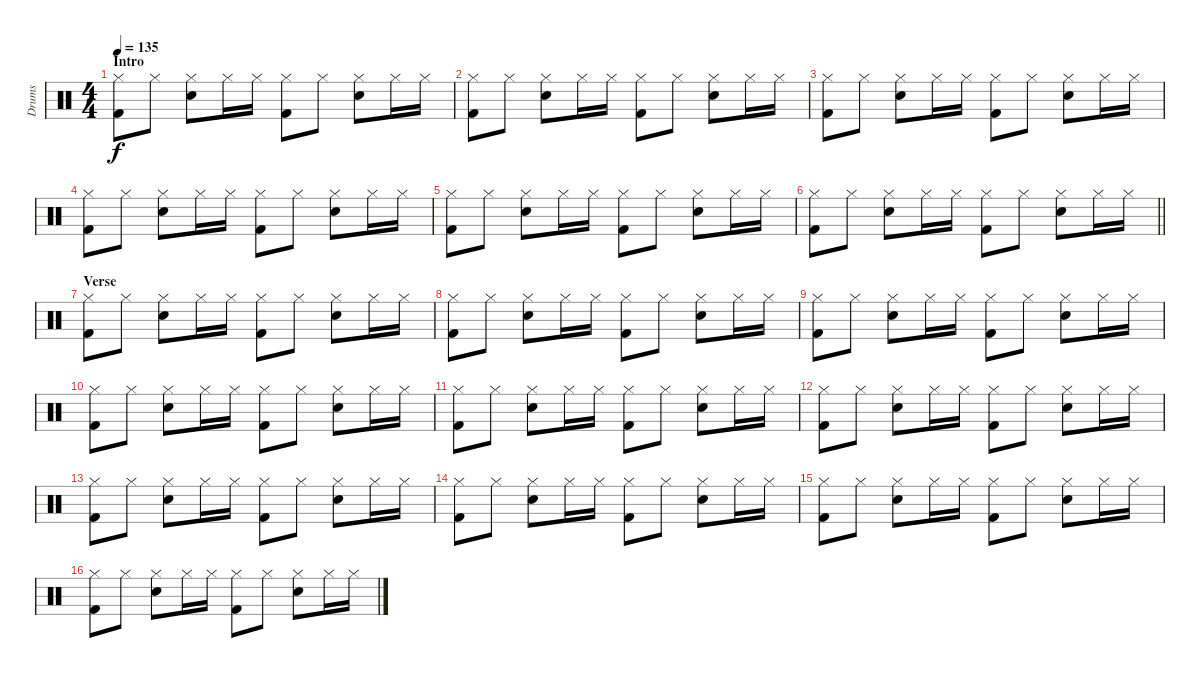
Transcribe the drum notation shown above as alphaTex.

\track ("Drums" "Drums") {instrument percussion}
\staff {score}
\articulation defaults
\ts (4 4)
\section ("" "Intro")
\tempo 135
\clef neutral
\ks c
("Hi-Hat (closed)" "Kick (hit) 2").8{dy f} "Hi-Hat (closed)".8 ("Hi-Hat (closed)" "Snare (hit) 2").8 "Hi-Hat (closed)".16 "Hi-Hat (closed)".16 ("Hi-Hat (closed)" "Kick (hit) 2").8 "Hi-Hat (closed)".8 ("Hi-Hat (closed)" "Snare (hit) 2").8 "Hi-Hat (closed)".16 "Hi-Hat (closed)".16 |
("Hi-Hat (closed)" "Kick (hit) 2").8 "Hi-Hat (closed)".8 ("Hi-Hat (closed)" "Snare (hit) 2").8 "Hi-Hat (closed)".16 "Hi-Hat (closed)".16 ("Hi-Hat (closed)" "Kick (hit) 2").8 "Hi-Hat (closed)".8 ("Hi-Hat (closed)" "Snare (hit) 2").8 "Hi-Hat (closed)".16 "Hi-Hat (closed)".16 |
("Hi-Hat (closed)" "Kick (hit) 2").8 "Hi-Hat (closed)".8 ("Hi-Hat (closed)" "Snare (hit) 2").8 "Hi-Hat (closed)".16 "Hi-Hat (closed)".16 ("Hi-Hat (closed)" "Kick (hit) 2").8 "Hi-Hat (closed)".8 ("Hi-Hat (closed)" "Snare (hit) 2").8 "Hi-Hat (closed)".16 "Hi-Hat (closed)".16 |
("Hi-Hat (closed)" "Kick (hit) 2").8 "Hi-Hat (closed)".8 ("Hi-Hat (closed)" "Snare (hit) 2").8 "Hi-Hat (closed)".16 "Hi-Hat (closed)".16 ("Hi-Hat (closed)" "Kick (hit) 2").8 "Hi-Hat (closed)".8 ("Hi-Hat (closed)" "Snare (hit) 2").8 "Hi-Hat (closed)".16 "Hi-Hat (closed)".16 |
("Hi-Hat (closed)" "Kick (hit) 2").8 "Hi-Hat (closed)".8 ("Hi-Hat (closed)" "Snare (hit) 2").8 "Hi-Hat (closed)".16 "Hi-Hat (closed)".16 ("Hi-Hat (closed)" "Kick (hit) 2").8 "Hi-Hat (closed)".8 ("Hi-Hat (closed)" "Snare (hit) 2").8 "Hi-Hat (closed)".16 "Hi-Hat (closed)".16 |
\barLineRight lightlight
("Hi-Hat (closed)" "Kick (hit) 2").8 "Hi-Hat (closed)".8 ("Hi-Hat (closed)" "Snare (hit) 2").8 "Hi-Hat (closed)".16 "Hi-Hat (closed)".16 ("Hi-Hat (closed)" "Kick (hit) 2").8 "Hi-Hat (closed)".8 ("Hi-Hat (closed)" "Snare (hit) 2").8 "Hi-Hat (closed)".16 "Hi-Hat (closed)".16 |
\section ("" "Verse")
("Hi-Hat (closed)" "Kick (hit) 2").8 "Hi-Hat (closed)".8 ("Hi-Hat (closed)" "Snare (hit) 2").8 "Hi-Hat (closed)".16 "Hi-Hat (closed)".16 ("Hi-Hat (closed)" "Kick (hit) 2").8 "Hi-Hat (closed)".8 ("Hi-Hat (closed)" "Snare (hit) 2").8 "Hi-Hat (closed)".16 "Hi-Hat (closed)".16 |
("Hi-Hat (closed)" "Kick (hit) 2").8 "Hi-Hat (closed)".8 ("Hi-Hat (closed)" "Snare (hit) 2").8 "Hi-Hat (closed)".16 "Hi-Hat (closed)".16 ("Hi-Hat (closed)" "Kick (hit) 2").8 "Hi-Hat (closed)".8 ("Hi-Hat (closed)" "Snare (hit) 2").8 "Hi-Hat (closed)".16 "Hi-Hat (closed)".16 |
("Hi-Hat (closed)" "Kick (hit) 2").8 "Hi-Hat (closed)".8 ("Hi-Hat (closed)" "Snare (hit) 2").8 "Hi-Hat (closed)".16 "Hi-Hat (closed)".16 ("Hi-Hat (closed)" "Kick (hit) 2").8 "Hi-Hat (closed)".8 ("Hi-Hat (closed)" "Snare (hit) 2").8 "Hi-Hat (closed)".16 "Hi-Hat (closed)".16 |
("Hi-Hat (closed)" "Kick (hit) 2").8 "Hi-Hat (closed)".8 ("Hi-Hat (closed)" "Snare (hit) 2").8 "Hi-Hat (closed)".16 "Hi-Hat (closed)".16 ("Hi-Hat (closed)" "Kick (hit) 2").8 "Hi-Hat (closed)".8 ("Hi-Hat (closed)" "Snare (hit) 2").8 "Hi-Hat (closed)".16 "Hi-Hat (closed)".16 |
("Hi-Hat (closed)" "Kick (hit) 2").8 "Hi-Hat (closed)".8 ("Hi-Hat (closed)" "Snare (hit) 2").8 "Hi-Hat (closed)".16 "Hi-Hat (closed)".16 ("Hi-Hat (closed)" "Kick (hit) 2").8 "Hi-Hat (closed)".8 ("Hi-Hat (closed)" "Snare (hit) 2").8 "Hi-Hat (closed)".16 "Hi-Hat (closed)".16 |
("Hi-Hat (closed)" "Kick (hit) 2").8 "Hi-Hat (closed)".8 ("Hi-Hat (closed)" "Snare (hit) 2").8 "Hi-Hat (closed)".16 "Hi-Hat (closed)".16 ("Hi-Hat (closed)" "Kick (hit) 2").8 "Hi-Hat (closed)".8 ("Hi-Hat (closed)" "Snare (hit) 2").8 "Hi-Hat (closed)".16 "Hi-Hat (closed)".16 |
("Hi-Hat (closed)" "Kick (hit) 2").8 "Hi-Hat (closed)".8 ("Hi-Hat (closed)" "Snare (hit) 2").8 "Hi-Hat (closed)".16 "Hi-Hat (closed)".16 ("Hi-Hat (closed)" "Kick (hit) 2").8 "Hi-Hat (closed)".8 ("Hi-Hat (closed)" "Snare (hit) 2").8 "Hi-Hat (closed)".16 "Hi-Hat (closed)".16 |
("Hi-Hat (closed)" "Kick (hit) 2").8 "Hi-Hat (closed)".8 ("Hi-Hat (closed)" "Snare (hit) 2").8 "Hi-Hat (closed)".16 "Hi-Hat (closed)".16 ("Hi-Hat (closed)" "Kick (hit) 2").8 "Hi-Hat (closed)".8 ("Hi-Hat (closed)" "Snare (hit) 2").8 "Hi-Hat (closed)".16 "Hi-Hat (closed)".16 |
("Hi-Hat (closed)" "Kick (hit) 2").8 "Hi-Hat (closed)".8 ("Hi-Hat (closed)" "Snare (hit) 2").8 "Hi-Hat (closed)".16 "Hi-Hat (closed)".16 ("Hi-Hat (closed)" "Kick (hit) 2").8 "Hi-Hat (closed)".8 ("Hi-Hat (closed)" "Snare (hit) 2").8 "Hi-Hat (closed)".16 "Hi-Hat (closed)".16 |
("Hi-Hat (closed)" "Kick (hit) 2").8 "Hi-Hat (closed)".8 ("Hi-Hat (closed)" "Snare (hit) 2").8 "Hi-Hat (closed)".16 "Hi-Hat (closed)".16 ("Hi-Hat (closed)" "Kick (hit) 2").8 "Hi-Hat (closed)".8 ("Hi-Hat (closed)" "Snare (hit) 2").8 "Hi-Hat (closed)".16 "Hi-Hat (closed)".16
